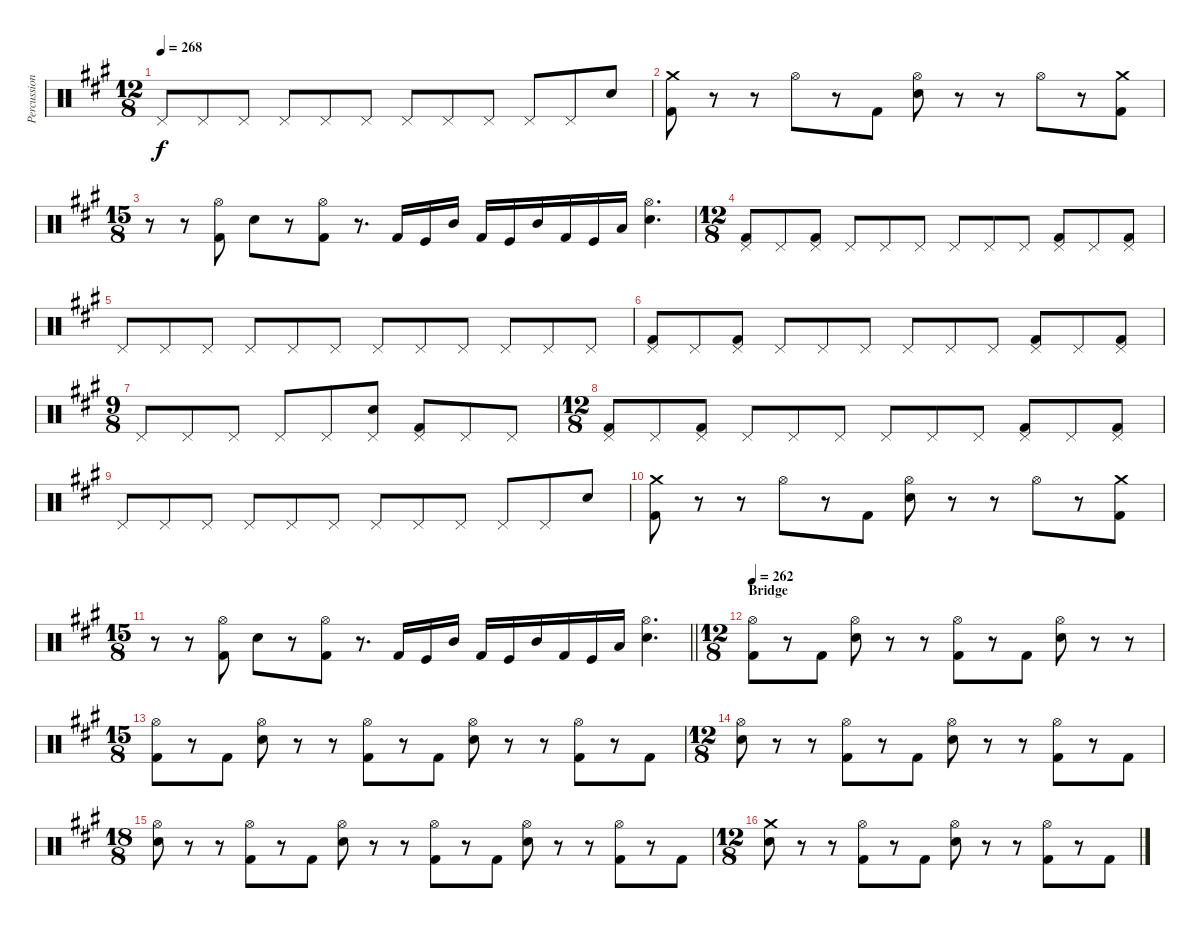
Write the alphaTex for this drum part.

\track ("Percussion" "Percussion") {instrument percussion}
\staff {score}
\articulation defaults
\ts (12 8)
\tempo 268
\clef neutral
\ks a "Pedal Hi-Hat (hit)".8{dy f} "Pedal Hi-Hat (hit)".8 "Pedal Hi-Hat (hit)".8 "Pedal Hi-Hat (hit)".8 "Pedal Hi-Hat (hit)".8 "Pedal Hi-Hat (hit)".8 "Pedal Hi-Hat (hit)".8 "Pedal Hi-Hat (hit)".8 "Pedal Hi-Hat (hit)".8 "Pedal Hi-Hat (hit)".8 "Pedal Hi-Hat (hit)".8 "Electric Snare (hit)".8
|
("Crash medium (hit)" "Kick (hit) 2").8 r.8 r.8 "Hi-Hat (open)".8 r.8 "Kick (hit) 2".8 ("Hi-Hat (open)" "Electric Snare (hit)").8 r.8 r.8 "Hi-Hat (open)".8 r.8 ("Crash medium (hit)" "Kick (hit) 2").8 |
\ts (15 8)
r.8 r.8 ("Hi-Hat (open)" "Kick (hit) 2").8 "Electric Snare (hit)".8 r.8 ("Hi-Hat (open)" "Kick (hit) 2").8 r.8{d} "Kick (hit) 2".16 "Kick (hit)".16 "Mid Tom (hit)".16 "Kick (hit) 2".16 "Kick (hit)".16 "Mid Tom (hit)".16 "Kick (hit) 2".16 "Kick (hit)".16 "Low Tom (hit)".16 ("Hi-Hat (open)" "Electric Snare (hit)").4{d} |
\ts (12 8)
("Pedal Hi-Hat (hit)" "Kick (hit) 2").8 "Pedal Hi-Hat (hit)".8 ("Pedal Hi-Hat (hit)" "Kick (hit) 2").8 "Pedal Hi-Hat (hit)".8 "Pedal Hi-Hat (hit)".8 "Pedal Hi-Hat (hit)".8 "Pedal Hi-Hat (hit)".8 "Pedal Hi-Hat (hit)".8 "Pedal Hi-Hat (hit)".8 ("Pedal Hi-Hat (hit)" "Kick (hit) 2").8 "Pedal Hi-Hat (hit)".8 ("Pedal Hi-Hat (hit)" "Kick (hit) 2").8 |
"Pedal Hi-Hat (hit)".8 "Pedal Hi-Hat (hit)".8 "Pedal Hi-Hat (hit)".8 "Pedal Hi-Hat (hit)".8 "Pedal Hi-Hat (hit)".8 "Pedal Hi-Hat (hit)".8 "Pedal Hi-Hat (hit)".8 "Pedal Hi-Hat (hit)".8 "Pedal Hi-Hat (hit)".8 "Pedal Hi-Hat (hit)".8 "Pedal Hi-Hat (hit)".8 "Pedal Hi-Hat (hit)".8 |
("Pedal Hi-Hat (hit)" "Kick (hit) 2").8 "Pedal Hi-Hat (hit)".8 ("Pedal Hi-Hat (hit)" "Kick (hit) 2").8 "Pedal Hi-Hat (hit)".8 "Pedal Hi-Hat (hit)".8 "Pedal Hi-Hat (hit)".8 "Pedal Hi-Hat (hit)".8 "Pedal Hi-Hat (hit)".8 "Pedal Hi-Hat (hit)".8 ("Pedal Hi-Hat (hit)" "Kick (hit) 2").8 "Pedal Hi-Hat (hit)".8 ("Pedal Hi-Hat (hit)" "Kick (hit) 2").8 |
\ts (9 8)
"Pedal Hi-Hat (hit)".8 "Pedal Hi-Hat (hit)".8 "Pedal Hi-Hat (hit)".8 "Pedal Hi-Hat (hit)".8 "Pedal Hi-Hat (hit)".8 ("Pedal Hi-Hat (hit)" "Electric Snare (hit)").8 ("Pedal Hi-Hat (hit)" "Kick (hit) 2").8 "Pedal Hi-Hat (hit)".8 "Pedal Hi-Hat (hit)".8 |
\ts (12 8)
("Pedal Hi-Hat (hit)" "Kick (hit) 2").8 "Pedal Hi-Hat (hit)".8 ("Pedal Hi-Hat (hit)" "Kick (hit) 2").8 "Pedal Hi-Hat (hit)".8 "Pedal Hi-Hat (hit)".8 "Pedal Hi-Hat (hit)".8 "Pedal Hi-Hat (hit)".8 "Pedal Hi-Hat (hit)".8 "Pedal Hi-Hat (hit)".8 ("Pedal Hi-Hat (hit)" "Kick (hit) 2").8 "Pedal Hi-Hat (hit)".8 ("Pedal Hi-Hat (hit)" "Kick (hit) 2").8 |
"Pedal Hi-Hat (hit)".8 "Pedal Hi-Hat (hit)".8 "Pedal Hi-Hat (hit)".8 "Pedal Hi-Hat (hit)".8 "Pedal Hi-Hat (hit)".8 "Pedal Hi-Hat (hit)".8 "Pedal Hi-Hat (hit)".8 "Pedal Hi-Hat (hit)".8 "Pedal Hi-Hat (hit)".8 "Pedal Hi-Hat (hit)".8 "Pedal Hi-Hat (hit)".8 "Electric Snare (hit)".8 |
("Crash medium (hit)" "Kick (hit) 2").8 r.8 r.8 "Hi-Hat (open)".8 r.8 "Kick (hit) 2".8 ("Hi-Hat (open)" "Electric Snare (hit)").8 r.8 r.8 "Hi-Hat (open)".8 r.8 ("Crash medium (hit)" "Kick (hit) 2").8 |
\ts (15 8)
\barLineRight lightlight
r.8 r.8 ("Hi-Hat (open)" "Kick (hit) 2").8 "Electric Snare (hit)".8 r.8 ("Hi-Hat (open)" "Kick (hit) 2").8 r.8{d} "Kick (hit) 2".16 "Kick (hit)".16 "Mid Tom (hit)".16 "Kick (hit) 2".16 "Kick (hit)".16 "Mid Tom (hit)".16 "Kick (hit) 2".16 "Kick (hit)".16 "Low Tom (hit)".16 ("Hi-Hat (open)" "Electric Snare (hit)").4{d} |
\ts (12 8)
\section ("" "Bridge")
\tempo 262
("Hi-Hat (open)" "Kick (hit) 2").8 r.8 "Kick (hit) 2".8 ("Hi-Hat (open)" "Electric Snare (hit)").8 r.8 r.8 ("Hi-Hat (open)" "Kick (hit) 2").8 r.8 "Kick (hit) 2".8 ("Hi-Hat (open)" "Electric Snare (hit)").8 r.8 r.8 |
\ts (15 8)
("Hi-Hat (open)" "Kick (hit) 2").8 r.8 "Kick (hit) 2".8 ("Hi-Hat (open)" "Electric Snare (hit)").8 r.8 r.8 ("Hi-Hat (open)" "Kick (hit) 2").8 r.8 "Kick (hit) 2".8 ("Hi-Hat (open)" "Electric Snare (hit)").8 r.8 r.8 ("Hi-Hat (open)" "Kick (hit) 2").8 r.8 "Kick (hit) 2".8 |
\ts (12 8)
("Hi-Hat (open)" "Electric Snare (hit)").8 r.8 r.8 ("Hi-Hat (open)" "Kick (hit) 2").8 r.8 "Kick (hit) 2".8 ("Hi-Hat (open)" "Electric Snare (hit)").8 r.8 r.8 ("Hi-Hat (open)" "Kick (hit) 2").8 r.8 "Kick (hit) 2".8 |
\ts (18 8)
("Hi-Hat (open)" "Electric Snare (hit)").8 r.8 r.8 ("Hi-Hat (open)" "Kick (hit) 2").8 r.8 "Kick (hit) 2".8 ("Hi-Hat (open)" "Electric Snare (hit)").8 r.8 r.8 ("Hi-Hat (open)" "Kick (hit) 2").8 r.8 "Kick (hit) 2".8 ("Hi-Hat (open)" "Electric Snare (hit)").8 r.8 r.8 ("Hi-Hat (open)" "Kick (hit) 2").8 r.8 "Kick (hit) 2".8 |
\ts (12 8)
("Crash medium (hit)" "Electric Snare (hit)").8 r.8 r.8 ("Hi-Hat (open)" "Kick (hit) 2").8 r.8 "Kick (hit) 2".8 ("Hi-Hat (open)" "Electric Snare (hit)").8 r.8 r.8 ("Hi-Hat (open)" "Kick (hit) 2").8 r.8 "Kick (hit) 2".8
